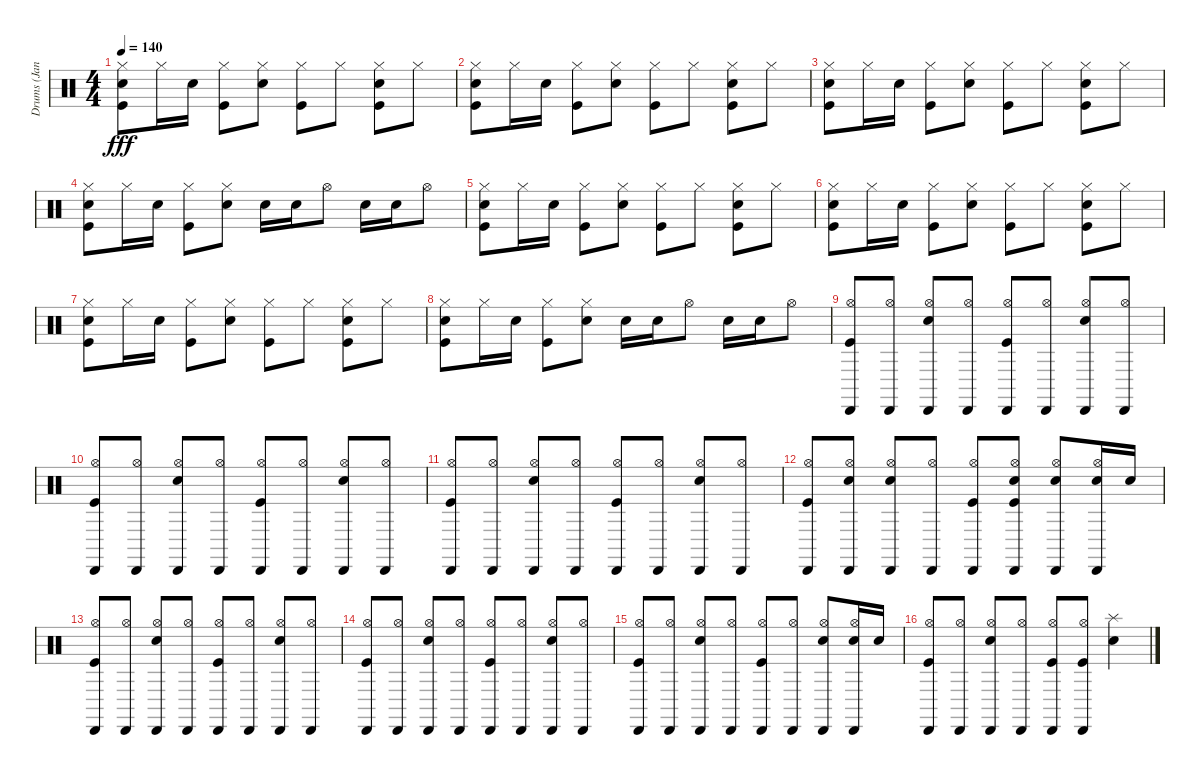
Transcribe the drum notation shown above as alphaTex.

\track ("Drums (Janet)" "Drums (Jan") {instrument percussion}
\staff {score}
\articulation defaults
\ts (4 4)
\tempo 140
\clef neutral
\ks c
("Hi-Hat (closed)" "Snare (hit) 2" "Kick (hit)").8{dy fff} "Hi-Hat (closed)".16 "Snare (hit) 2".16 ("Hi-Hat (closed)" "Kick (hit)").8 ("Hi-Hat (closed)" "Snare (hit) 2").8 ("Hi-Hat (closed)" "Kick (hit)").8 "Hi-Hat (closed)".8 ("Hi-Hat (closed)" "Snare (hit) 2" "Kick (hit)").8 "Hi-Hat (closed)".8 |
("Hi-Hat (closed)" "Snare (hit) 2" "Kick (hit)").8 "Hi-Hat (closed)".16 "Snare (hit) 2".16 ("Hi-Hat (closed)" "Kick (hit)").8 ("Hi-Hat (closed)" "Snare (hit) 2").8 ("Hi-Hat (closed)" "Kick (hit)").8 "Hi-Hat (closed)".8 ("Hi-Hat (closed)" "Snare (hit) 2" "Kick (hit)").8 "Hi-Hat (closed)".8 |
("Hi-Hat (closed)" "Snare (hit) 2" "Kick (hit)").8 "Hi-Hat (closed)".16 "Snare (hit) 2".16 ("Hi-Hat (closed)" "Kick (hit)").8 ("Hi-Hat (closed)" "Snare (hit) 2").8 ("Hi-Hat (closed)" "Kick (hit)").8 "Hi-Hat (closed)".8 ("Hi-Hat (closed)" "Snare (hit) 2" "Kick (hit)").8 "Hi-Hat (closed)".8 |
("Hi-Hat (closed)" "Snare (hit) 2" "Kick (hit)").8 "Hi-Hat (closed)".16 "Snare (hit) 2".16 ("Hi-Hat (closed)" "Kick (hit)").8 ("Hi-Hat (closed)" "Snare (hit) 2").8 "Snare (hit) 2".16 "Snare (hit) 2".16 "Hi-Hat (open)".8 "Snare (hit) 2".16 "Snare (hit) 2".16 "Hi-Hat (open)".8 |
("Hi-Hat (closed)" "Snare (hit) 2" "Kick (hit)").8 "Hi-Hat (closed)".16 "Snare (hit) 2".16 ("Hi-Hat (closed)" "Kick (hit)").8 ("Hi-Hat (closed)" "Snare (hit) 2").8 ("Hi-Hat (closed)" "Kick (hit)").8 "Hi-Hat (closed)".8 ("Hi-Hat (closed)" "Snare (hit) 2" "Kick (hit)").8 "Hi-Hat (closed)".8 |
("Hi-Hat (closed)" "Snare (hit) 2" "Kick (hit)").8 "Hi-Hat (closed)".16 "Snare (hit) 2".16 ("Hi-Hat (closed)" "Kick (hit)").8 ("Hi-Hat (closed)" "Snare (hit) 2").8 ("Hi-Hat (closed)" "Kick (hit)").8 "Hi-Hat (closed)".8 ("Hi-Hat (closed)" "Snare (hit) 2" "Kick (hit)").8 "Hi-Hat (closed)".8 |
("Hi-Hat (closed)" "Snare (hit) 2" "Kick (hit)").8 "Hi-Hat (closed)".16 "Snare (hit) 2".16 ("Hi-Hat (closed)" "Kick (hit)").8 ("Hi-Hat (closed)" "Snare (hit) 2").8 ("Hi-Hat (closed)" "Kick (hit)").8 "Hi-Hat (closed)".8 ("Hi-Hat (closed)" "Snare (hit) 2" "Kick (hit)").8 "Hi-Hat (closed)".8 |
("Hi-Hat (closed)" "Snare (hit) 2" "Kick (hit)").8 "Hi-Hat (closed)".16 "Snare (hit) 2".16 ("Hi-Hat (closed)" "Kick (hit)").8 ("Hi-Hat (closed)" "Snare (hit) 2").8 "Snare (hit) 2".16 "Snare (hit) 2".16 "Hi-Hat (open)".8 "Snare (hit) 2".16 "Snare (hit) 2".16 "Hi-Hat (open)".8 |
("Hi-Hat (open)" "Cabasa (hit)" "Kick (hit)").8 ("Hi-Hat (open)" "Cabasa (hit)").8 ("Hi-Hat (open)" "Cabasa (hit)" "Snare (hit) 2").8 ("Hi-Hat (open)" "Cabasa (hit)").8 ("Hi-Hat (open)" "Cabasa (hit)" "Kick (hit)").8 ("Hi-Hat (open)" "Cabasa (hit)").8 ("Hi-Hat (open)" "Cabasa (hit)" "Snare (hit) 2").8 ("Hi-Hat (open)" "Cabasa (hit)").8 |
("Hi-Hat (open)" "Cabasa (hit)" "Kick (hit)").8 ("Hi-Hat (open)" "Cabasa (hit)").8 ("Hi-Hat (open)" "Cabasa (hit)" "Snare (hit) 2").8 ("Hi-Hat (open)" "Cabasa (hit)").8 ("Hi-Hat (open)" "Cabasa (hit)" "Kick (hit)").8 ("Hi-Hat (open)" "Cabasa (hit)").8 ("Hi-Hat (open)" "Cabasa (hit)" "Snare (hit) 2").8 ("Hi-Hat (open)" "Cabasa (hit)").8 |
("Hi-Hat (open)" "Cabasa (hit)" "Kick (hit)").8 ("Hi-Hat (open)" "Cabasa (hit)").8 ("Hi-Hat (open)" "Cabasa (hit)" "Snare (hit) 2").8 ("Hi-Hat (open)" "Cabasa (hit)").8 ("Hi-Hat (open)" "Cabasa (hit)" "Kick (hit)").8 ("Hi-Hat (open)" "Cabasa (hit)").8 ("Hi-Hat (open)" "Cabasa (hit)" "Snare (hit) 2").8 ("Hi-Hat (open)" "Cabasa (hit)").8 |
("Hi-Hat (open)" "Cabasa (hit)" "Kick (hit)").8 ("Hi-Hat (open)" "Cabasa (hit)" "Snare (hit) 2").8 ("Hi-Hat (open)" "Cabasa (hit)" "Snare (hit) 2").8 ("Hi-Hat (open)" "Cabasa (hit)").8 ("Hi-Hat (open)" "Cabasa (hit)" "Kick (hit)").8 ("Hi-Hat (open)" "Cabasa (hit)" "Snare (hit) 2" "Kick (hit)").8 ("Hi-Hat (open)" "Cabasa (hit)" "Snare (hit) 2").8 ("Hi-Hat (open)" "Cabasa (hit)" "Snare (hit) 2").16 "Snare (hit) 2".16 |
("Hi-Hat (open)" "Cabasa (hit)" "Kick (hit)").8 ("Hi-Hat (open)" "Cabasa (hit)").8 ("Hi-Hat (open)" "Cabasa (hit)" "Snare (hit) 2").8 ("Hi-Hat (open)" "Cabasa (hit)").8 ("Hi-Hat (open)" "Cabasa (hit)" "Kick (hit)").8 ("Hi-Hat (open)" "Cabasa (hit)").8 ("Hi-Hat (open)" "Cabasa (hit)" "Snare (hit) 2").8 ("Hi-Hat (open)" "Cabasa (hit)").8 |
("Hi-Hat (open)" "Cabasa (hit)" "Kick (hit)").8 ("Hi-Hat (open)" "Cabasa (hit)").8 ("Hi-Hat (open)" "Cabasa (hit)" "Snare (hit) 2").8 ("Hi-Hat (open)" "Cabasa (hit)").8 ("Hi-Hat (open)" "Cabasa (hit)" "Kick (hit)").8 ("Hi-Hat (open)" "Cabasa (hit)").8 ("Hi-Hat (open)" "Cabasa (hit)" "Snare (hit) 2").8 ("Hi-Hat (open)" "Cabasa (hit)").8 |
("Hi-Hat (open)" "Cabasa (hit)" "Kick (hit)").8 ("Hi-Hat (open)" "Cabasa (hit)").8 ("Hi-Hat (open)" "Cabasa (hit)" "Snare (hit) 2").8 ("Hi-Hat (open)" "Cabasa (hit)").8 ("Hi-Hat (open)" "Cabasa (hit)" "Kick (hit)").8 ("Hi-Hat (open)" "Cabasa (hit)").8 ("Hi-Hat (open)" "Cabasa (hit)" "Snare (hit) 2").8 ("Hi-Hat (open)" "Cabasa (hit)" "Snare (hit) 2").16 "Snare (hit) 2".16 |
("Hi-Hat (open)" "Cabasa (hit)" "Kick (hit)").8 ("Hi-Hat (open)" "Cabasa (hit)").8 ("Hi-Hat (open)" "Cabasa (hit)" "Snare (hit) 2").8 ("Hi-Hat (open)" "Cabasa (hit)").8 ("Hi-Hat (open)" "Cabasa (hit)" "Kick (hit)").8 ("Hi-Hat (open)" "Cabasa (hit)" "Kick (hit)").8 ("Splash (hit)" "Snare (hit) 2").4
